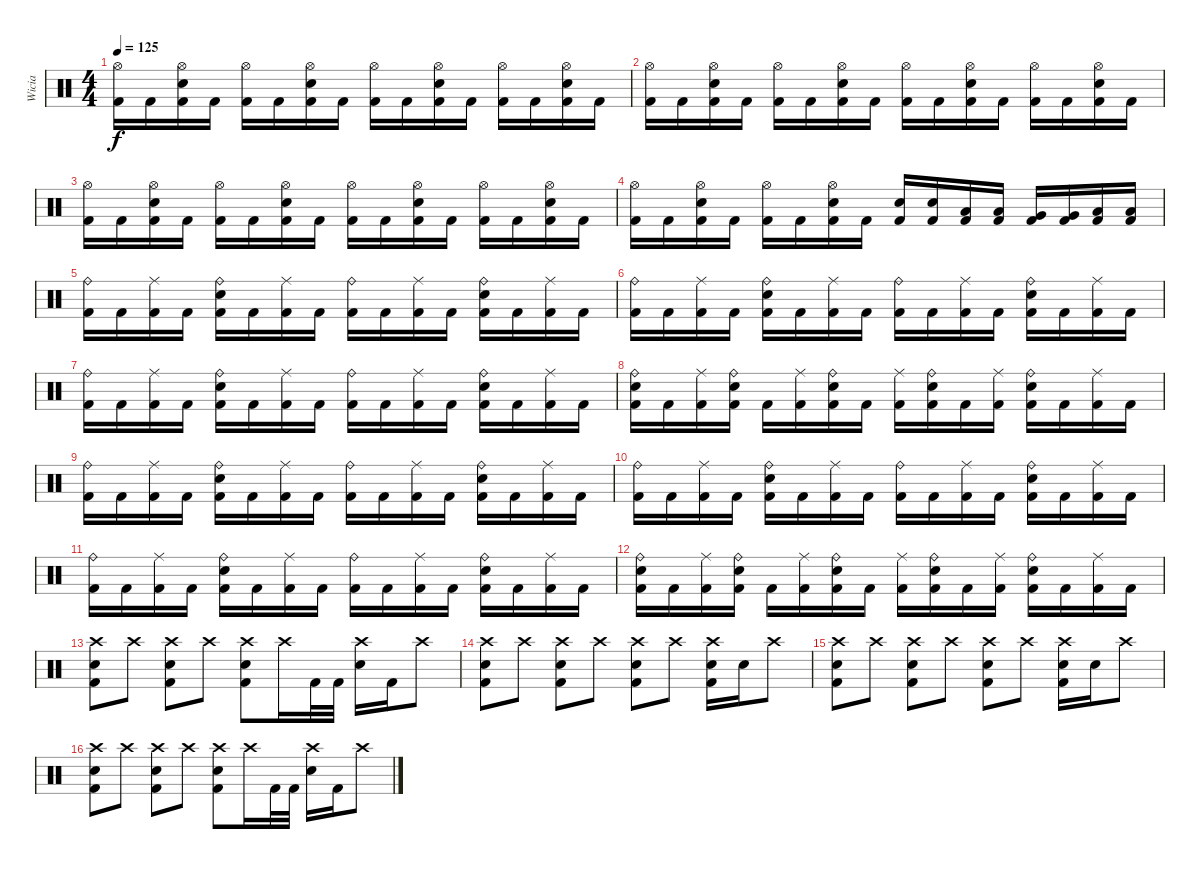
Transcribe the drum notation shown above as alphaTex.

\track ("Wicia" "Wicia") {instrument percussion}
\staff {score}
\articulation defaults
\ts (4 4)
\tempo 125
\clef neutral
\ks c
("Hi-Hat (open)" "Kick (hit) 2").16{dy f} "Kick (hit) 2".16 ("Hi-Hat (open)" "Electric Snare (hit)" "Kick (hit) 2").16 "Kick (hit) 2".16 ("Hi-Hat (open)" "Kick (hit) 2").16 "Kick (hit) 2".16 ("Hi-Hat (open)" "Electric Snare (hit)" "Kick (hit) 2").16 "Kick (hit) 2".16 ("Hi-Hat (open)" "Kick (hit) 2").16 "Kick (hit) 2".16 ("Hi-Hat (open)" "Electric Snare (hit)" "Kick (hit) 2").16 "Kick (hit) 2".16 ("Hi-Hat (open)" "Kick (hit) 2").16 "Kick (hit) 2".16 ("Hi-Hat (open)" "Electric Snare (hit)" "Kick (hit) 2").16 "Kick (hit) 2".16 |
("Hi-Hat (open)" "Kick (hit) 2").16 "Kick (hit) 2".16 ("Hi-Hat (open)" "Electric Snare (hit)" "Kick (hit) 2").16 "Kick (hit) 2".16 ("Hi-Hat (open)" "Kick (hit) 2").16 "Kick (hit) 2".16 ("Hi-Hat (open)" "Electric Snare (hit)" "Kick (hit) 2").16 "Kick (hit) 2".16 ("Hi-Hat (open)" "Kick (hit) 2").16 "Kick (hit) 2".16 ("Hi-Hat (open)" "Electric Snare (hit)" "Kick (hit) 2").16 "Kick (hit) 2".16 ("Hi-Hat (open)" "Kick (hit) 2").16 "Kick (hit) 2".16 ("Hi-Hat (open)" "Electric Snare (hit)" "Kick (hit) 2").16 "Kick (hit) 2".16 |
("Hi-Hat (open)" "Kick (hit) 2").16 "Kick (hit) 2".16 ("Hi-Hat (open)" "Electric Snare (hit)" "Kick (hit) 2").16 "Kick (hit) 2".16 ("Hi-Hat (open)" "Kick (hit) 2").16 "Kick (hit) 2".16 ("Hi-Hat (open)" "Electric Snare (hit)" "Kick (hit) 2").16 "Kick (hit) 2".16 ("Hi-Hat (open)" "Kick (hit) 2").16 "Kick (hit) 2".16 ("Hi-Hat (open)" "Electric Snare (hit)" "Kick (hit) 2").16 "Kick (hit) 2".16 ("Hi-Hat (open)" "Kick (hit) 2").16 "Kick (hit) 2".16 ("Hi-Hat (open)" "Electric Snare (hit)" "Kick (hit) 2").16 "Kick (hit) 2".16 |
("Hi-Hat (open)" "Kick (hit) 2").16 "Kick (hit) 2".16 ("Hi-Hat (open)" "Electric Snare (hit)" "Kick (hit) 2").16 "Kick (hit) 2".16 ("Hi-Hat (open)" "Kick (hit) 2").16 "Kick (hit) 2".16 ("Hi-Hat (open)" "Electric Snare (hit)" "Kick (hit) 2").16 "Kick (hit) 2".16 ("Electric Snare (hit)" "Kick (hit) 2").16 ("Electric Snare (hit)" "Kick (hit) 2").16 ("Low Tom (hit)" "Kick (hit) 2").16 ("Low Tom (hit)" "Kick (hit) 2").16 ("Very Low Tom (hit)" "Kick (hit) 2").16 ("Very Low Tom (hit)" "Kick (hit) 2").16 ("Low Floor Tom (hit)" "Kick (hit) 2").16 ("Low Floor Tom (hit)" "Kick (hit) 2").16 |
("Ride (bell)" "Kick (hit) 2").16 "Kick (hit) 2".16 ("Ride (middle)" "Kick (hit) 2").16 "Kick (hit) 2".16 ("Ride (bell)" "Electric Snare (hit)" "Kick (hit) 2").16 "Kick (hit) 2".16 ("Ride (middle)" "Kick (hit) 2").16 "Kick (hit) 2".16 ("Ride (bell)" "Kick (hit) 2").16 "Kick (hit) 2".16 ("Ride (middle)" "Kick (hit) 2").16 "Kick (hit) 2".16 ("Ride (bell)" "Electric Snare (hit)" "Kick (hit) 2").16 "Kick (hit) 2".16 ("Ride (middle)" "Kick (hit) 2").16 "Kick (hit) 2".16 |
("Ride (bell)" "Kick (hit) 2").16 "Kick (hit) 2".16 ("Ride (middle)" "Kick (hit) 2").16 "Kick (hit) 2".16 ("Ride (bell)" "Electric Snare (hit)" "Kick (hit) 2").16 "Kick (hit) 2".16 ("Ride (middle)" "Kick (hit) 2").16 "Kick (hit) 2".16 ("Ride (bell)" "Kick (hit) 2").16 "Kick (hit) 2".16 ("Ride (middle)" "Kick (hit) 2").16 "Kick (hit) 2".16 ("Ride (bell)" "Electric Snare (hit)" "Kick (hit) 2").16 "Kick (hit) 2".16 ("Ride (middle)" "Kick (hit) 2").16 "Kick (hit) 2".16 |
("Ride (bell)" "Kick (hit) 2").16 "Kick (hit) 2".16 ("Ride (middle)" "Kick (hit) 2").16 "Kick (hit) 2".16 ("Ride (bell)" "Electric Snare (hit)" "Kick (hit) 2").16 "Kick (hit) 2".16 ("Ride (middle)" "Kick (hit) 2").16 "Kick (hit) 2".16 ("Ride (bell)" "Kick (hit) 2").16 "Kick (hit) 2".16 ("Ride (middle)" "Kick (hit) 2").16 "Kick (hit) 2".16 ("Ride (bell)" "Electric Snare (hit)" "Kick (hit) 2").16 "Kick (hit) 2".16 ("Ride (middle)" "Kick (hit) 2").16 "Kick (hit) 2".16 |
("Ride (bell)" "Electric Snare (hit)" "Kick (hit) 2").16 "Kick (hit) 2".16 ("Ride (middle)" "Kick (hit) 2").16 ("Ride (bell)" "Electric Snare (hit)" "Kick (hit) 2").16 "Kick (hit) 2".16 ("Ride (middle)" "Kick (hit) 2").16 ("Ride (bell)" "Electric Snare (hit)" "Kick (hit) 2").16 "Kick (hit) 2".16 ("Ride (middle)" "Kick (hit) 2").16 ("Ride (bell)" "Electric Snare (hit)" "Kick (hit) 2").16 "Kick (hit) 2".16 ("Ride (middle)" "Kick (hit) 2").16 ("Ride (bell)" "Electric Snare (hit)" "Kick (hit) 2").16 "Kick (hit) 2".16 ("Ride (middle)" "Kick (hit) 2").16 "Kick (hit) 2".16 |
("Ride (bell)" "Kick (hit) 2").16 "Kick (hit) 2".16 ("Ride (middle)" "Kick (hit) 2").16 "Kick (hit) 2".16 ("Ride (bell)" "Electric Snare (hit)" "Kick (hit) 2").16 "Kick (hit) 2".16 ("Ride (middle)" "Kick (hit) 2").16 "Kick (hit) 2".16 ("Ride (bell)" "Kick (hit) 2").16 "Kick (hit) 2".16 ("Ride (middle)" "Kick (hit) 2").16 "Kick (hit) 2".16 ("Ride (bell)" "Electric Snare (hit)" "Kick (hit) 2").16 "Kick (hit) 2".16 ("Ride (middle)" "Kick (hit) 2").16 "Kick (hit) 2".16 |
("Ride (bell)" "Kick (hit) 2").16 "Kick (hit) 2".16 ("Ride (middle)" "Kick (hit) 2").16 "Kick (hit) 2".16 ("Ride (bell)" "Electric Snare (hit)" "Kick (hit) 2").16 "Kick (hit) 2".16 ("Ride (middle)" "Kick (hit) 2").16 "Kick (hit) 2".16 ("Ride (bell)" "Kick (hit) 2").16 "Kick (hit) 2".16 ("Ride (middle)" "Kick (hit) 2").16 "Kick (hit) 2".16 ("Ride (bell)" "Electric Snare (hit)" "Kick (hit) 2").16 "Kick (hit) 2".16 ("Ride (middle)" "Kick (hit) 2").16 "Kick (hit) 2".16 |
("Ride (bell)" "Kick (hit) 2").16 "Kick (hit) 2".16 ("Ride (middle)" "Kick (hit) 2").16 "Kick (hit) 2".16 ("Ride (bell)" "Electric Snare (hit)" "Kick (hit) 2").16 "Kick (hit) 2".16 ("Ride (middle)" "Kick (hit) 2").16 "Kick (hit) 2".16 ("Ride (bell)" "Kick (hit) 2").16 "Kick (hit) 2".16 ("Ride (middle)" "Kick (hit) 2").16 "Kick (hit) 2".16 ("Ride (bell)" "Electric Snare (hit)" "Kick (hit) 2").16 "Kick (hit) 2".16 ("Ride (middle)" "Kick (hit) 2").16 "Kick (hit) 2".16 |
("Ride (bell)" "Electric Snare (hit)" "Kick (hit) 2").16 "Kick (hit) 2".16 ("Ride (middle)" "Kick (hit) 2").16 ("Ride (bell)" "Electric Snare (hit)" "Kick (hit) 2").16 "Kick (hit) 2".16 ("Ride (middle)" "Kick (hit) 2").16 ("Ride (bell)" "Electric Snare (hit)" "Kick (hit) 2").16 "Kick (hit) 2".16 ("Ride (middle)" "Kick (hit) 2").16 ("Ride (bell)" "Electric Snare (hit)" "Kick (hit) 2").16 "Kick (hit) 2".16 ("Ride (middle)" "Kick (hit) 2").16 ("Ride (bell)" "Electric Snare (hit)" "Kick (hit) 2").16 "Kick (hit) 2".16 ("Ride (middle)" "Kick (hit) 2").16 "Kick (hit) 2".16 |
("Crash high (hit)" "Electric Snare (hit)" "Kick (hit) 2").8 "Crash high (hit)".8 ("Crash high (hit)" "Electric Snare (hit)" "Kick (hit) 2").8 "Crash high (hit)".8 ("Crash high (hit)" "Electric Snare (hit)" "Kick (hit) 2").8 "Crash high (hit)".16 "Kick (hit) 2".32 "Kick (hit) 2".32 ("Crash high (hit)" "Electric Snare (hit)").16 "Kick (hit) 2".16 "Crash high (hit)".8 |
("Crash high (hit)" "Electric Snare (hit)" "Kick (hit) 2").8 "Crash high (hit)".8 ("Crash high (hit)" "Electric Snare (hit)" "Kick (hit) 2").8 "Crash high (hit)".8 ("Crash high (hit)" "Electric Snare (hit)" "Kick (hit) 2").8 "Crash high (hit)".8 ("Crash high (hit)" "Electric Snare (hit)" "Kick (hit) 2").16 "Electric Snare (hit)".16 "Crash high (hit)".8 |
("Crash high (hit)" "Electric Snare (hit)" "Kick (hit) 2").8 "Crash high (hit)".8 ("Crash high (hit)" "Electric Snare (hit)" "Kick (hit) 2").8 "Crash high (hit)".8 ("Crash high (hit)" "Electric Snare (hit)" "Kick (hit) 2").8 "Crash high (hit)".8 ("Crash high (hit)" "Electric Snare (hit)" "Kick (hit) 2").16 "Electric Snare (hit)".16 "Crash high (hit)".8 |
("Crash high (hit)" "Electric Snare (hit)" "Kick (hit) 2").8 "Crash high (hit)".8 ("Crash high (hit)" "Electric Snare (hit)" "Kick (hit) 2").8 "Crash high (hit)".8 ("Crash high (hit)" "Electric Snare (hit)" "Kick (hit) 2").8 "Crash high (hit)".16 "Kick (hit) 2".32 "Kick (hit) 2".32 ("Crash high (hit)" "Electric Snare (hit)").16 "Kick (hit) 2".16 "Crash high (hit)".8
